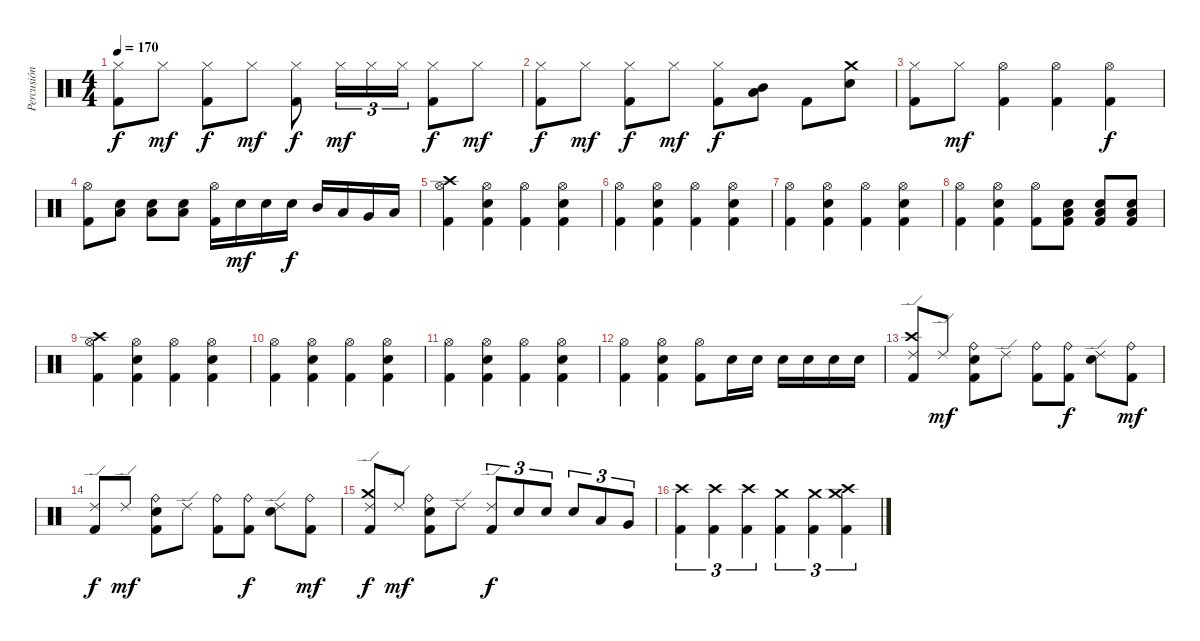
\track ("Percusión" "Percusión") {instrument percussion}
\staff {score}
\articulation defaults
\ts (4 4)
\tempo 170
\clef neutral
\ks c
("Hi-Hat (closed)" "Kick (hit) 2").8{dy f} "Hi-Hat (closed)".8{dy mf} ("Hi-Hat (closed)" "Kick (hit) 2").8{dy f} "Hi-Hat (closed)".8{dy mf} ("Hi-Hat (closed)" "Kick (hit) 2").8{dy f} "Hi-Hat (closed)".16{tu (3 2) dy mf} "Hi-Hat (closed)".16{tu (3 2)} "Hi-Hat (closed)".16{tu (3 2)} ("Hi-Hat (closed)" "Kick (hit) 2").8{dy f} "Hi-Hat (closed)".8{dy mf} |
("Hi-Hat (closed)" "Kick (hit) 2").8{dy f} "Hi-Hat (closed)".8{dy mf} ("Hi-Hat (closed)" "Kick (hit) 2").8{dy f} "Hi-Hat (closed)".8{dy mf} ("Hi-Hat (closed)" "Kick (hit) 2").8{dy f} ("Mid Tom (hit)" "Low Tom (hit)").8 "Kick (hit) 2".8 ("Crash medium (hit)" "Electric Snare (hit)").8 |
("Hi-Hat (closed)" "Kick (hit) 2").8 "Hi-Hat (closed)".8{dy mf} ("Hi-Hat (open)" "Kick (hit) 2").4 ("Hi-Hat (open)" "Kick (hit) 2").4 ("Hi-Hat (open)" "Kick (hit) 2").4{dy f} |
("Hi-Hat (open)" "Kick (hit) 2").8 ("Low Floor Tom (hit)" "Electric Snare (hit)").8 ("Low Floor Tom (hit)" "Electric Snare (hit)").8 ("Low Floor Tom (hit)" "Electric Snare (hit)").8 ("Hi-Hat (open)" "Kick (hit) 2").16 "Electric Snare (hit)".16{dy mf} "Electric Snare (hit)".16 "Electric Snare (hit)".16{dy f} "Mid Tom (hit)".16 "Low Tom (hit)".16 "Very Low Tom (hit)".16 "Low Floor Tom (hit)".16 |
("Crash high (hit)" "Hi-Hat (open)" "Kick (hit) 2").4 ("Hi-Hat (open)" "Electric Snare (hit)" "Kick (hit) 2").4 ("Hi-Hat (open)" "Kick (hit) 2").4 ("Hi-Hat (open)" "Electric Snare (hit)" "Kick (hit) 2").4 |
("Hi-Hat (open)" "Kick (hit) 2").4 ("Hi-Hat (open)" "Electric Snare (hit)" "Kick (hit) 2").4 ("Hi-Hat (open)" "Kick (hit) 2").4 ("Hi-Hat (open)" "Electric Snare (hit)" "Kick (hit) 2").4 |
("Hi-Hat (open)" "Kick (hit) 2").4 ("Hi-Hat (open)" "Electric Snare (hit)" "Kick (hit) 2").4 ("Hi-Hat (open)" "Kick (hit) 2").4 ("Hi-Hat (open)" "Electric Snare (hit)" "Kick (hit) 2").4 |
("Hi-Hat (open)" "Kick (hit) 2").4 ("Hi-Hat (open)" "Electric Snare (hit)" "Kick (hit) 2").4 ("Hi-Hat (open)" "Kick (hit) 2").8 ("Electric Snare (hit)" "Low Tom (hit)" "Kick (hit) 2").8 ("Electric Snare (hit)" "Low Tom (hit)" "Kick (hit) 2").8 ("Electric Snare (hit)" "Low Tom (hit)" "Kick (hit) 2").8 |
("Crash high (hit)" "Hi-Hat (open)" "Kick (hit) 2").4 ("Hi-Hat (open)" "Electric Snare (hit)" "Kick (hit) 2").4 ("Hi-Hat (open)" "Kick (hit) 2").4 ("Hi-Hat (open)" "Electric Snare (hit)" "Kick (hit) 2").4 |
("Hi-Hat (open)" "Kick (hit) 2").4 ("Hi-Hat (open)" "Electric Snare (hit)" "Kick (hit) 2").4 ("Hi-Hat (open)" "Kick (hit) 2").4 ("Hi-Hat (open)" "Electric Snare (hit)" "Kick (hit) 2").4 |
("Hi-Hat (open)" "Kick (hit) 2").4 ("Hi-Hat (open)" "Electric Snare (hit)" "Kick (hit) 2").4 ("Hi-Hat (open)" "Kick (hit) 2").4 ("Hi-Hat (open)" "Electric Snare (hit)" "Kick (hit) 2").4 |
("Hi-Hat (open)" "Kick (hit) 2").4 ("Hi-Hat (open)" "Electric Snare (hit)" "Kick (hit) 2").4 ("Hi-Hat (open)" "Kick (hit) 2").8 "Electric Snare (hit)".16 "Electric Snare (hit)".16 "Electric Snare (hit)".16 "Electric Snare (hit)".16 "Electric Snare (hit)".16 "Electric Snare (hit)".16 |
("Crash high (hit)" "Ride (edge) 2" "Kick (hit) 2").8 "Ride (edge) 2".8{dy mf} ("Ride (bell)" "Electric Snare (hit)" "Kick (hit) 2").8 "Ride (edge) 2".8 ("Ride (bell)" "Kick (hit) 2").8 ("Ride (bell)" "Kick (hit) 2").8{dy f} ("Ride (edge) 2" "Electric Snare (hit)").8 ("Ride (bell)" "Kick (hit) 2").8{dy mf} |
("Ride (edge) 2" "Kick (hit) 2").8{dy f} "Ride (edge) 2".8{dy mf} ("Ride (bell)" "Electric Snare (hit)" "Kick (hit) 2").8 "Ride (edge) 2".8 ("Ride (bell)" "Kick (hit) 2").8 ("Ride (bell)" "Kick (hit) 2").8{dy f} ("Ride (edge) 2" "Electric Snare (hit)").8 ("Ride (bell)" "Kick (hit) 2").8{dy mf} |
("Crash medium (hit)" "Ride (edge) 2" "Kick (hit) 2").8{dy f} "Ride (edge) 2".8{dy mf} ("Ride (bell)" "Electric Snare (hit)" "Kick (hit) 2").8 "Ride (edge) 2".8 ("Ride (edge) 2" "Kick (hit) 2").8{tu (3 2) dy f} "Electric Snare (hit)".8{tu (3 2)} "Electric Snare (hit)".8{tu (3 2)} "Electric Snare (hit)".8{tu (3 2)} "Low Tom (hit)".8{tu (3 2)} "Very Low Tom (hit)".8{tu (3 2)} |
("Crash high (hit)" "Kick (hit) 2").4{tu (3 2)} ("Crash high (hit)" "Kick (hit) 2").4{tu (3 2)} ("Crash high (hit)" "Kick (hit) 2").4{tu (3 2)} ("Crash medium (hit)" "Kick (hit) 2").4{tu (3 2)} ("Crash medium (hit)" "Kick (hit) 2").4{tu (3 2)} ("Crash medium (hit)" "Crash high (hit)" "Kick (hit) 2").4{tu (3 2)}
